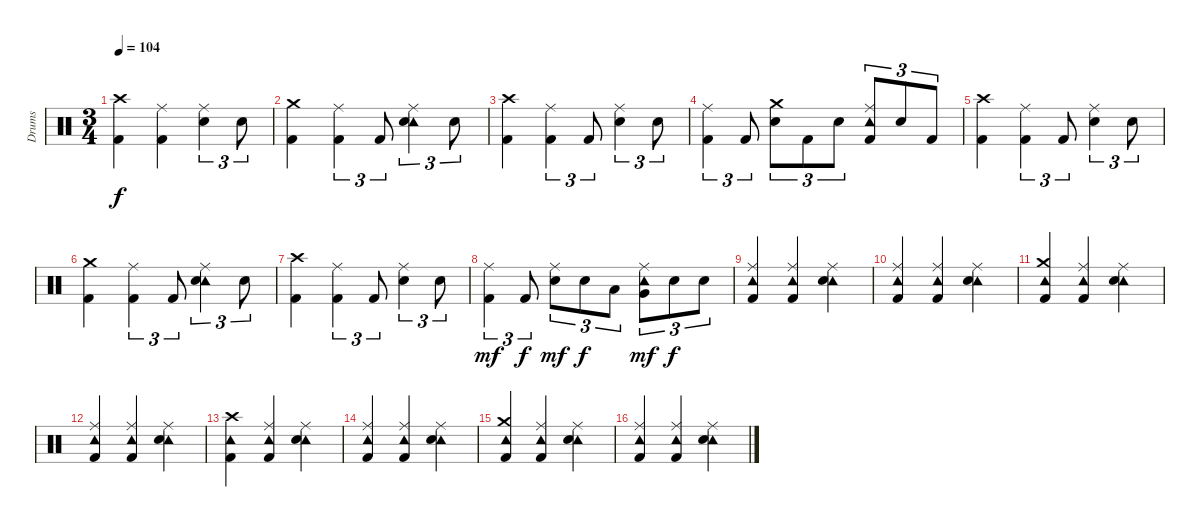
\track ("Drums" "Drums") {instrument percussion}
\staff {score}
\articulation defaults
\ts (3 4)
\tempo 104
\clef neutral
\ks c
("Crash high (hit)" "Kick (hit) 2").4{dy f} ("Ride (middle)" "Kick (hit) 2").4 ("Ride (middle)" "Snare (hit) 2").4{tu (3 2)} "Snare (hit) 2".8{tu (3 2)} |
("Crash medium (hit)" "Kick (hit) 2").4 ("Ride (middle)" "Kick (hit) 2").4{tu (3 2)} "Kick (hit) 2".8{tu (3 2)} ("Ride (middle)" "Tambourine (hit)" "Snare (hit) 2").4{tu (3 2)} "Snare (hit) 2".8{tu (3 2)} |
("Crash high (hit)" "Kick (hit) 2").4 ("Ride (middle)" "Kick (hit) 2").4{tu (3 2)} "Kick (hit) 2".8{tu (3 2)} ("Ride (middle)" "Snare (hit) 2").4{tu (3 2)} "Snare (hit) 2".8{tu (3 2)} |
("Ride (middle)" "Kick (hit) 2").4{tu (3 2)} "Kick (hit) 2".8{tu (3 2)} ("Crash medium (hit)" "Snare (hit) 2").8{tu (3 2)} "Kick (hit) 2".8{tu (3 2)} "Snare (hit) 2".8{tu (3 2)} ("Ride (middle)" "Tambourine (hit)" "Kick (hit) 2").8{tu (3 2)} "Snare (hit) 2".8{tu (3 2)} "Kick (hit) 2".8{tu (3 2)} |
("Crash high (hit)" "Kick (hit) 2").4 ("Ride (middle)" "Kick (hit) 2").4{tu (3 2)} "Kick (hit) 2".8{tu (3 2)} ("Ride (middle)" "Snare (hit) 2").4{tu (3 2)} "Snare (hit) 2".8{tu (3 2)} |
("Crash medium (hit)" "Kick (hit) 2").4 ("Ride (middle)" "Kick (hit) 2").4{tu (3 2)} "Kick (hit) 2".8{tu (3 2)} ("Ride (middle)" "Tambourine (hit)" "Snare (hit) 2").4{tu (3 2)} "Snare (hit) 2".8{tu (3 2)} |
("Crash high (hit)" "Kick (hit) 2").4 ("Ride (middle)" "Kick (hit) 2").4{tu (3 2)} "Kick (hit) 2".8{tu (3 2)} ("Ride (middle)" "Snare (hit) 2").4{tu (3 2)} "Snare (hit) 2".8{tu (3 2)} |
("Ride (middle)" "Kick (hit) 2").4{tu (3 2) dy mf} "Kick (hit) 2".8{tu (3 2) dy f} ("Ride (middle)" "Snare (hit) 2").8{tu (3 2) dy mf} "Snare (hit) 2".8{tu (3 2) dy f} "Low Tom (hit)".8{tu (3 2)} ("Ride (middle)" "Tambourine (hit)" "Very Low Tom (hit)").8{tu (3 2) dy mf} "Snare (hit) 2".8{tu (3 2) dy f} "Snare (hit) 2".8{tu (3 2)} |
("Ride (middle)" "Tambourine (hit)" "Kick (hit) 2").4 ("Ride (middle)" "Tambourine (hit)" "Kick (hit) 2").4 ("Ride (middle)" "Tambourine (hit)" "Snare (hit) 2").4 |
("Ride (middle)" "Tambourine (hit)" "Kick (hit) 2").4 ("Ride (middle)" "Tambourine (hit)" "Kick (hit) 2").4 ("Ride (middle)" "Tambourine (hit)" "Snare (hit) 2").4 |
("Crash medium (hit)" "Tambourine (hit)" "Kick (hit) 2").4 ("Ride (middle)" "Tambourine (hit)" "Kick (hit) 2").4 ("Ride (middle)" "Tambourine (hit)" "Snare (hit) 2").4 |
("Ride (middle)" "Tambourine (hit)" "Kick (hit) 2").4 ("Ride (middle)" "Tambourine (hit)" "Kick (hit) 2").4 ("Ride (middle)" "Tambourine (hit)" "Snare (hit) 2").4 |
("Crash high (hit)" "Tambourine (hit)" "Kick (hit) 2").4 ("Ride (middle)" "Tambourine (hit)" "Kick (hit) 2").4 ("Ride (middle)" "Tambourine (hit)" "Snare (hit) 2").4 |
("Ride (middle)" "Tambourine (hit)" "Kick (hit) 2").4 ("Ride (middle)" "Tambourine (hit)" "Kick (hit) 2").4 ("Ride (middle)" "Tambourine (hit)" "Snare (hit) 2").4 |
("Crash medium (hit)" "Tambourine (hit)" "Kick (hit) 2").4 ("Ride (middle)" "Tambourine (hit)" "Kick (hit) 2").4 ("Ride (middle)" "Tambourine (hit)" "Snare (hit) 2").4 |
("Ride (middle)" "Tambourine (hit)" "Kick (hit) 2").4 ("Ride (middle)" "Tambourine (hit)" "Kick (hit) 2").4 ("Ride (middle)" "Tambourine (hit)" "Snare (hit) 2").4
